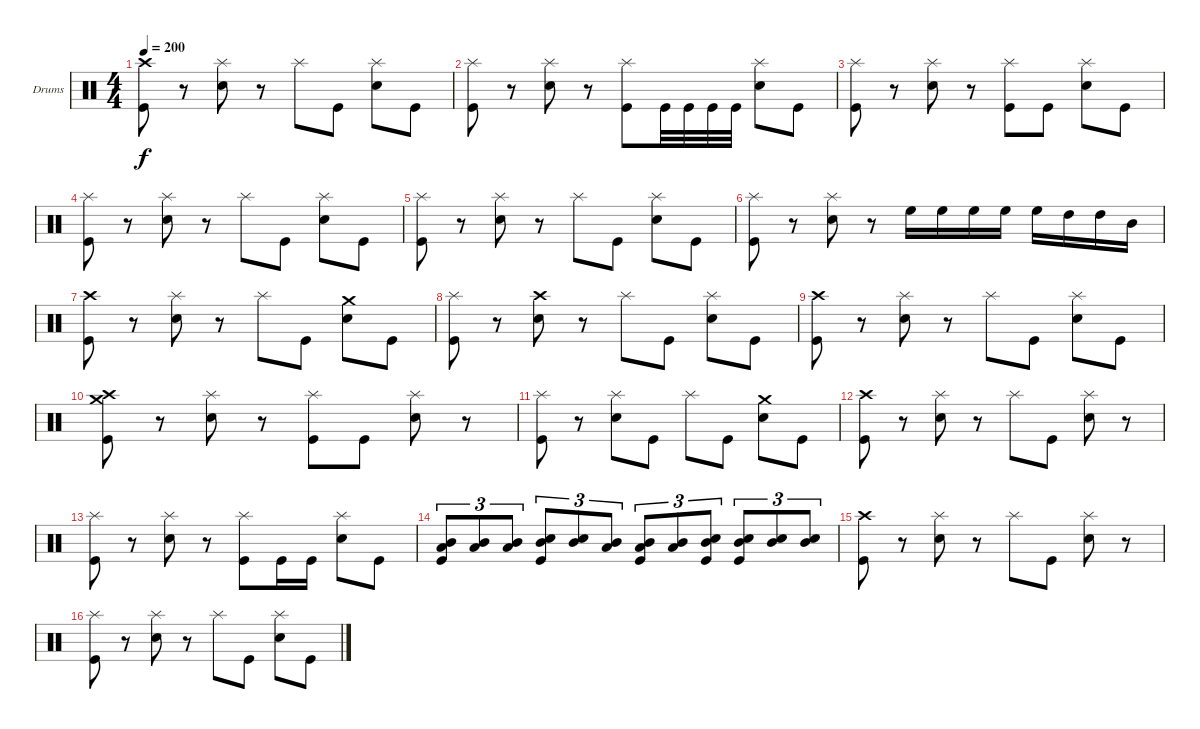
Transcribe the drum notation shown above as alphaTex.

\bracketExtendMode groupsimilarinstruments
\firstSystemTrackNameOrientation horizontal
\otherSystemsTrackNameOrientation horizontal
\track ("Drumkit" "Drums") {instrument percussion}
\staff {score}
\articulation defaults
\ts (4 4)
\tempo 200
\clef neutral
\ks c
("Crash high (hit)" "Kick (hit)").8{dy f} r.8 ("Splash (hit)" "Snare (hit) 2").8 r.8 "Splash (hit)".8 "Kick (hit)".8 ("Splash (hit)" "Snare (hit) 2").8 "Kick (hit)".8 |
("Splash (hit)" "Kick (hit)").8 r.8 ("Splash (hit)" "Snare (hit) 2").8 r.8 ("Splash (hit)" "Kick (hit)").8 "Kick (hit)".32 "Kick (hit)".32 "Kick (hit)".32 "Kick (hit)".32 ("Splash (hit)" "Snare (hit) 2").8 "Kick (hit)".8 |
("Splash (hit)" "Kick (hit)").8 r.8 ("Splash (hit)" "Snare (hit) 2").8 r.8 ("Splash (hit)" "Kick (hit)").8 "Kick (hit)".8 ("Splash (hit)" "Snare (hit) 2").8 "Kick (hit)".8 |
("Splash (hit)" "Kick (hit)").8 r.8 ("Splash (hit)" "Snare (hit) 2").8 r.8 "Splash (hit)".8 "Kick (hit)".8 ("Splash (hit)" "Snare (hit) 2").8 "Kick (hit)".8 |
("Splash (hit)" "Kick (hit)").8 r.8 ("Splash (hit)" "Snare (hit) 2").8 r.8 "Splash (hit)".8 "Kick (hit)".8 ("Splash (hit)" "Snare (hit) 2").8 "Kick (hit)".8 |
("Splash (hit)" "Kick (hit)").8 r.8 ("Splash (hit)" "Snare (hit) 2").8 r.8 "High Floor Tom (hit)".16 "High Floor Tom (hit)".16 "High Floor Tom (hit)".16 "High Floor Tom (hit)".16 "High Floor Tom (hit)".16 "High Tom (hit)".16 "High Tom (hit)".16 "Mid Tom (hit)".16 |
("Crash high (hit)" "Kick (hit)").8 r.8 ("Splash (hit)" "Snare (hit) 2").8 r.8 "Splash (hit)".8 "Kick (hit)".8 ("Crash medium (hit)" "Snare (hit) 2").8 "Kick (hit)".8 |
("Splash (hit)" "Kick (hit)").8 r.8 ("Crash high (hit)" "Snare (hit) 2").8 r.8 "Splash (hit)".8 "Kick (hit)".8 ("Splash (hit)" "Snare (hit) 2").8 "Kick (hit)".8 |
("Crash high (hit)" "Kick (hit)").8 r.8 ("Splash (hit)" "Snare (hit) 2").8 r.8 "Splash (hit)".8 "Kick (hit)".8 ("Splash (hit)" "Snare (hit) 2").8 "Kick (hit)".8 |
("Crash medium (hit)" "Crash high (hit)" "Kick (hit)").8 r.8 ("Splash (hit)" "Snare (hit) 2").8 r.8 ("Splash (hit)" "Kick (hit)").8 "Kick (hit)".8 ("Splash (hit)" "Snare (hit) 2").8 r.8 |
("Splash (hit)" "Kick (hit)").8 r.8 ("Splash (hit)" "Snare (hit) 2").8 "Kick (hit)".8 "Splash (hit)".8 "Kick (hit)".8 ("Crash medium (hit)" "Snare (hit) 2").8 "Kick (hit)".8 |
("Crash high (hit)" "Kick (hit)").8 r.8 ("Splash (hit)" "Snare (hit) 2").8 r.8 "Splash (hit)".8 "Kick (hit)".8 ("Splash (hit)" "Snare (hit) 2").8 r.8 |
("Splash (hit)" "Kick (hit)").8 r.8 ("Splash (hit)" "Snare (hit) 2").8 r.8 ("Splash (hit)" "Kick (hit)").8 "Kick (hit)".16 "Kick (hit)".16 ("Splash (hit)" "Snare (hit) 2").8 "Kick (hit)".8 |
("Mid Tom (hit)" "Low Tom (hit)" "Kick (hit)").8{tu (3 2)} ("Mid Tom (hit)" "Low Tom (hit)").8{tu (3 2)} ("Mid Tom (hit)" "Low Tom (hit)").8{tu (3 2)} ("Mid Tom (hit)" "Snare (hit) 2" "Kick (hit)").8{tu (3 2)} ("Mid Tom (hit)" "Snare (hit) 2").8{tu (3 2)} ("Mid Tom (hit)" "Low Tom (hit)").8{tu (3 2)} ("Mid Tom (hit)" "Low Tom (hit)" "Kick (hit)").8{tu (3 2)} ("Mid Tom (hit)" "Low Tom (hit)").8{tu (3 2)} ("Mid Tom (hit)" "Snare (hit) 2" "Kick (hit)").8{tu (3 2)} ("Mid Tom (hit)" "Snare (hit) 2" "Kick (hit)").8{tu (3 2)} ("Mid Tom (hit)" "Snare (hit) 2").8{tu (3 2)} ("Mid Tom (hit)" "Snare (hit) 2").8{tu (3 2)} |
("Crash high (hit)" "Kick (hit)").8 r.8 ("Splash (hit)" "Snare (hit) 2").8 r.8 "Splash (hit)".8 "Kick (hit)".8 ("Splash (hit)" "Snare (hit) 2").8 r.8 |
("Splash (hit)" "Kick (hit)").8 r.8 ("Splash (hit)" "Snare (hit) 2").8 r.8 "Splash (hit)".8 "Kick (hit)".8 ("Splash (hit)" "Snare (hit) 2").8 "Kick (hit)".8
